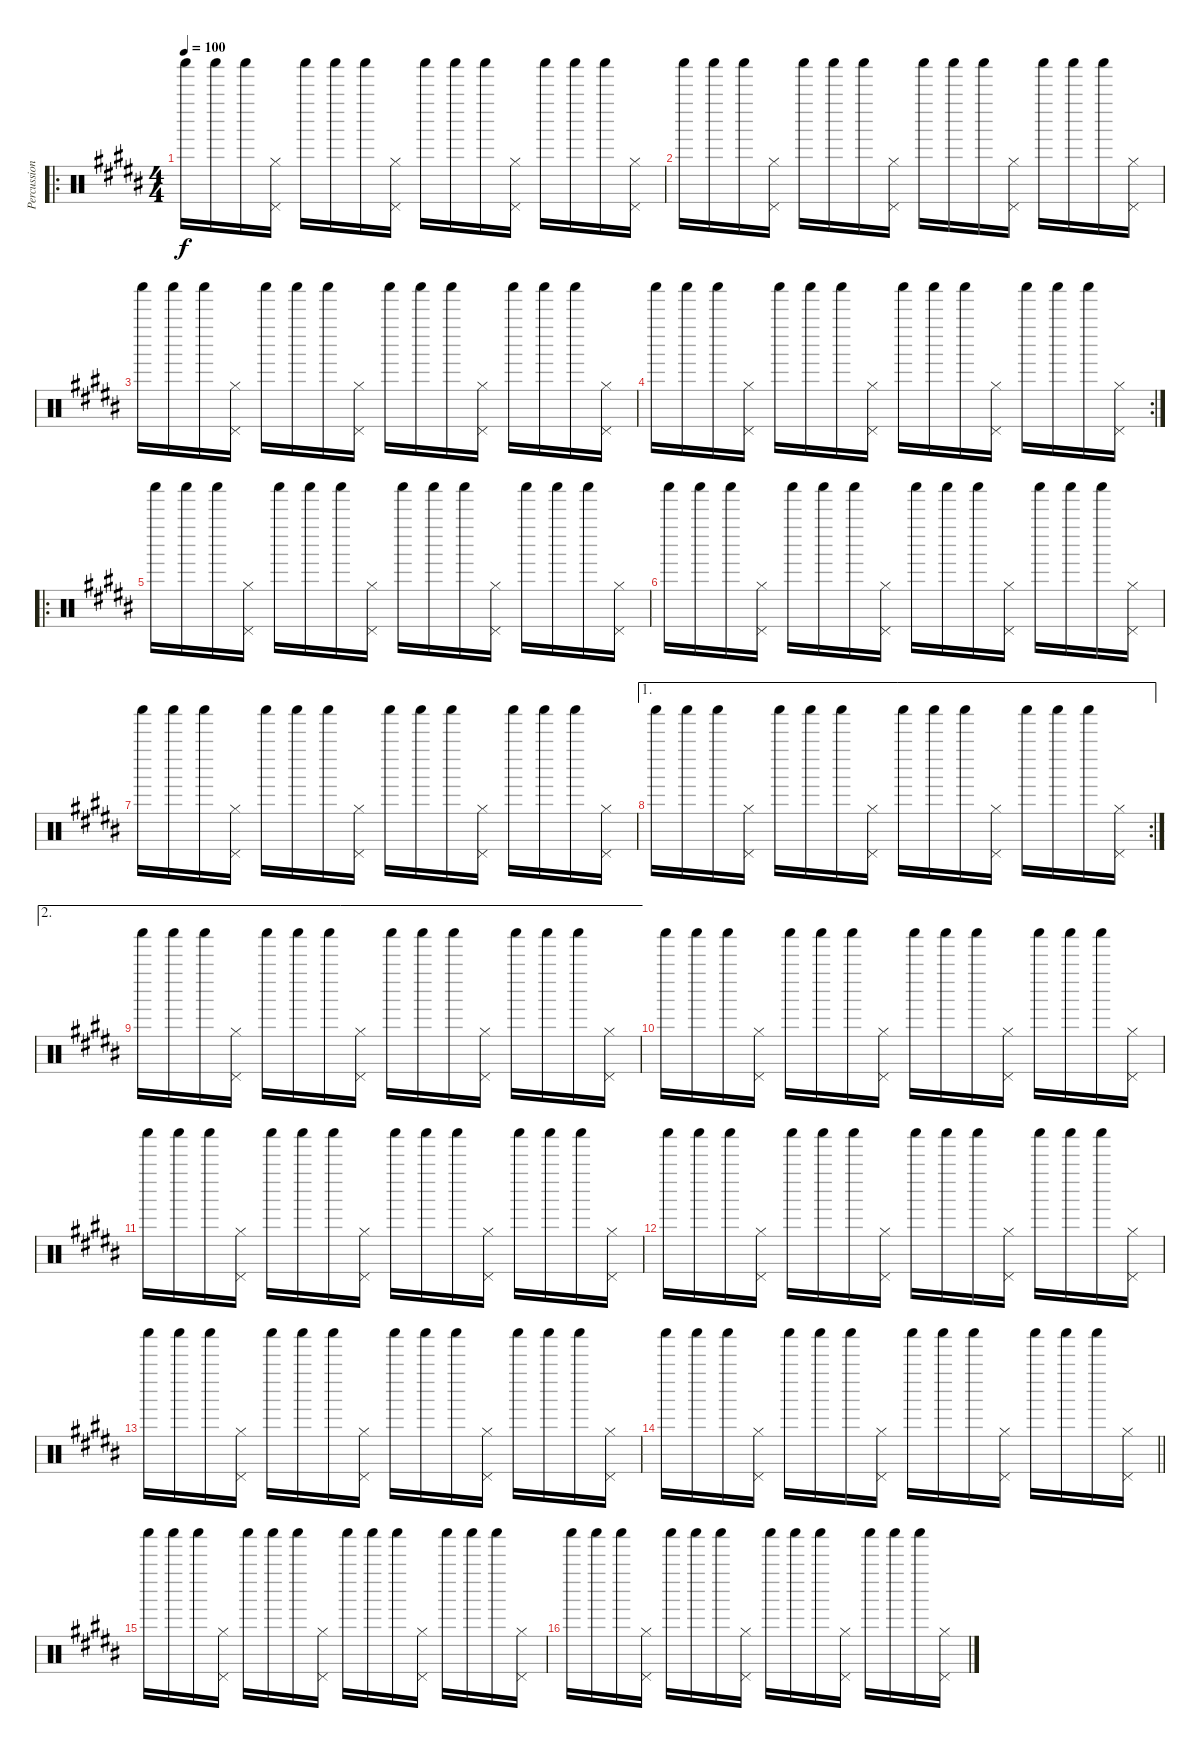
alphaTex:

\track ("Percussions" "Percussion") {instrument percussion}
\staff {score}
\articulation defaults
\ro
\ts (4 4)
\tempo 100
\clef neutral
\ks b "Shaker (hit)".16{dy f} "Shaker (hit)".16 "Shaker (hit)".16
("Hi-Hat (closed)" "Pedal Hi-Hat (hit)").16 "Shaker (hit)".16 "Shaker (hit)".16 "Shaker (hit)".16 ("Hi-Hat (closed)" "Pedal Hi-Hat (hit)").16 "Shaker (hit)".16 "Shaker (hit)".16 "Shaker (hit)".16 ("Hi-Hat (closed)" "Pedal Hi-Hat (hit)").16 "Shaker (hit)".16 "Shaker (hit)".16 "Shaker (hit)".16 ("Hi-Hat (closed)" "Pedal Hi-Hat (hit)").16 |
"Shaker (hit)".16 "Shaker (hit)".16 "Shaker (hit)".16 ("Hi-Hat (closed)" "Pedal Hi-Hat (hit)").16 "Shaker (hit)".16 "Shaker (hit)".16 "Shaker (hit)".16 ("Hi-Hat (closed)" "Pedal Hi-Hat (hit)").16 "Shaker (hit)".16 "Shaker (hit)".16 "Shaker (hit)".16 ("Hi-Hat (closed)" "Pedal Hi-Hat (hit)").16 "Shaker (hit)".16 "Shaker (hit)".16 "Shaker (hit)".16 ("Hi-Hat (closed)" "Pedal Hi-Hat (hit)").16 |
"Shaker (hit)".16 "Shaker (hit)".16 "Shaker (hit)".16 ("Hi-Hat (closed)" "Pedal Hi-Hat (hit)").16 "Shaker (hit)".16 "Shaker (hit)".16 "Shaker (hit)".16 ("Hi-Hat (closed)" "Pedal Hi-Hat (hit)").16 "Shaker (hit)".16 "Shaker (hit)".16 "Shaker (hit)".16 ("Hi-Hat (closed)" "Pedal Hi-Hat (hit)").16 "Shaker (hit)".16 "Shaker (hit)".16 "Shaker (hit)".16 ("Hi-Hat (closed)" "Pedal Hi-Hat (hit)").16 |
\rc 2 "Shaker (hit)".16 "Shaker (hit)".16 "Shaker (hit)".16
("Hi-Hat (closed)" "Pedal Hi-Hat (hit)").16 "Shaker (hit)".16 "Shaker (hit)".16 "Shaker (hit)".16 ("Hi-Hat (closed)" "Pedal Hi-Hat (hit)").16 "Shaker (hit)".16 "Shaker (hit)".16 "Shaker (hit)".16 ("Hi-Hat (closed)" "Pedal Hi-Hat (hit)").16 "Shaker (hit)".16 "Shaker (hit)".16 "Shaker (hit)".16 ("Hi-Hat (closed)" "Pedal Hi-Hat (hit)").16 |
\ro "Shaker (hit)".16 "Shaker (hit)".16 "Shaker (hit)".16
("Hi-Hat (closed)" "Pedal Hi-Hat (hit)").16 "Shaker (hit)".16 "Shaker (hit)".16 "Shaker (hit)".16 ("Hi-Hat (closed)" "Pedal Hi-Hat (hit)").16 "Shaker (hit)".16 "Shaker (hit)".16 "Shaker (hit)".16 ("Hi-Hat (closed)" "Pedal Hi-Hat (hit)").16 "Shaker (hit)".16 "Shaker (hit)".16 "Shaker (hit)".16 ("Hi-Hat (closed)" "Pedal Hi-Hat (hit)").16 |
"Shaker (hit)".16 "Shaker (hit)".16 "Shaker (hit)".16 ("Hi-Hat (closed)" "Pedal Hi-Hat (hit)").16 "Shaker (hit)".16 "Shaker (hit)".16 "Shaker (hit)".16 ("Hi-Hat (closed)" "Pedal Hi-Hat (hit)").16 "Shaker (hit)".16 "Shaker (hit)".16 "Shaker (hit)".16 ("Hi-Hat (closed)" "Pedal Hi-Hat (hit)").16 "Shaker (hit)".16 "Shaker (hit)".16 "Shaker (hit)".16 ("Hi-Hat (closed)" "Pedal Hi-Hat (hit)").16 |
"Shaker (hit)".16 "Shaker (hit)".16 "Shaker (hit)".16 ("Hi-Hat (closed)" "Pedal Hi-Hat (hit)").16 "Shaker (hit)".16 "Shaker (hit)".16 "Shaker (hit)".16 ("Hi-Hat (closed)" "Pedal Hi-Hat (hit)").16 "Shaker (hit)".16 "Shaker (hit)".16 "Shaker (hit)".16 ("Hi-Hat (closed)" "Pedal Hi-Hat (hit)").16 "Shaker (hit)".16 "Shaker (hit)".16 "Shaker (hit)".16 ("Hi-Hat (closed)" "Pedal Hi-Hat (hit)").16 |
\ae 1
\rc 2 "Shaker (hit)".16 "Shaker (hit)".16 "Shaker (hit)".16
("Hi-Hat (closed)" "Pedal Hi-Hat (hit)").16 "Shaker (hit)".16 "Shaker (hit)".16 "Shaker (hit)".16 ("Hi-Hat (closed)" "Pedal Hi-Hat (hit)").16 "Shaker (hit)".16 "Shaker (hit)".16 "Shaker (hit)".16 ("Hi-Hat (closed)" "Pedal Hi-Hat (hit)").16 "Shaker (hit)".16 "Shaker (hit)".16 "Shaker (hit)".16 ("Hi-Hat (closed)" "Pedal Hi-Hat (hit)").16 |
\ae 2 "Shaker (hit)".16 "Shaker (hit)".16 "Shaker (hit)".16
("Hi-Hat (closed)" "Pedal Hi-Hat (hit)").16 "Shaker (hit)".16 "Shaker (hit)".16 "Shaker (hit)".16 ("Hi-Hat (closed)" "Pedal Hi-Hat (hit)").16 "Shaker (hit)".16 "Shaker (hit)".16 "Shaker (hit)".16 ("Hi-Hat (closed)" "Pedal Hi-Hat (hit)").16 "Shaker (hit)".16 "Shaker (hit)".16 "Shaker (hit)".16 ("Hi-Hat (closed)" "Pedal Hi-Hat (hit)").16 |
"Shaker (hit)".16 "Shaker (hit)".16 "Shaker (hit)".16 ("Hi-Hat (closed)" "Pedal Hi-Hat (hit)").16 "Shaker (hit)".16 "Shaker (hit)".16 "Shaker (hit)".16 ("Hi-Hat (closed)" "Pedal Hi-Hat (hit)").16 "Shaker (hit)".16 "Shaker (hit)".16 "Shaker (hit)".16 ("Hi-Hat (closed)" "Pedal Hi-Hat (hit)").16 "Shaker (hit)".16 "Shaker (hit)".16 "Shaker (hit)".16 ("Hi-Hat (closed)" "Pedal Hi-Hat (hit)").16 |
"Shaker (hit)".16 "Shaker (hit)".16 "Shaker (hit)".16 ("Hi-Hat (closed)" "Pedal Hi-Hat (hit)").16 "Shaker (hit)".16 "Shaker (hit)".16 "Shaker (hit)".16 ("Hi-Hat (closed)" "Pedal Hi-Hat (hit)").16 "Shaker (hit)".16 "Shaker (hit)".16 "Shaker (hit)".16 ("Hi-Hat (closed)" "Pedal Hi-Hat (hit)").16 "Shaker (hit)".16 "Shaker (hit)".16 "Shaker (hit)".16 ("Hi-Hat (closed)" "Pedal Hi-Hat (hit)").16 |
"Shaker (hit)".16 "Shaker (hit)".16 "Shaker (hit)".16 ("Hi-Hat (closed)" "Pedal Hi-Hat (hit)").16 "Shaker (hit)".16 "Shaker (hit)".16 "Shaker (hit)".16 ("Hi-Hat (closed)" "Pedal Hi-Hat (hit)").16 "Shaker (hit)".16 "Shaker (hit)".16 "Shaker (hit)".16 ("Hi-Hat (closed)" "Pedal Hi-Hat (hit)").16 "Shaker (hit)".16 "Shaker (hit)".16 "Shaker (hit)".16 ("Hi-Hat (closed)" "Pedal Hi-Hat (hit)").16 |
"Shaker (hit)".16 "Shaker (hit)".16 "Shaker (hit)".16 ("Hi-Hat (closed)" "Pedal Hi-Hat (hit)").16 "Shaker (hit)".16 "Shaker (hit)".16 "Shaker (hit)".16 ("Hi-Hat (closed)" "Pedal Hi-Hat (hit)").16 "Shaker (hit)".16 "Shaker (hit)".16 "Shaker (hit)".16 ("Hi-Hat (closed)" "Pedal Hi-Hat (hit)").16 "Shaker (hit)".16 "Shaker (hit)".16 "Shaker (hit)".16 ("Hi-Hat (closed)" "Pedal Hi-Hat (hit)").16 |
\barLineRight lightlight "Shaker (hit)".16 "Shaker (hit)".16 "Shaker (hit)".16
("Hi-Hat (closed)" "Pedal Hi-Hat (hit)").16 "Shaker (hit)".16 "Shaker (hit)".16 "Shaker (hit)".16 ("Hi-Hat (closed)" "Pedal Hi-Hat (hit)").16 "Shaker (hit)".16 "Shaker (hit)".16 "Shaker (hit)".16 ("Hi-Hat (closed)" "Pedal Hi-Hat (hit)").16 "Shaker (hit)".16 "Shaker (hit)".16 "Shaker (hit)".16 ("Hi-Hat (closed)" "Pedal Hi-Hat (hit)").16 |
"Shaker (hit)".16 "Shaker (hit)".16 "Shaker (hit)".16 ("Hi-Hat (closed)" "Pedal Hi-Hat (hit)").16 "Shaker (hit)".16 "Shaker (hit)".16 "Shaker (hit)".16 ("Hi-Hat (closed)" "Pedal Hi-Hat (hit)").16 "Shaker (hit)".16 "Shaker (hit)".16 "Shaker (hit)".16 ("Hi-Hat (closed)" "Pedal Hi-Hat (hit)").16 "Shaker (hit)".16 "Shaker (hit)".16 "Shaker (hit)".16 ("Hi-Hat (closed)" "Pedal Hi-Hat (hit)").16 |
"Shaker (hit)".16 "Shaker (hit)".16 "Shaker (hit)".16 ("Hi-Hat (closed)" "Pedal Hi-Hat (hit)").16 "Shaker (hit)".16 "Shaker (hit)".16 "Shaker (hit)".16 ("Hi-Hat (closed)" "Pedal Hi-Hat (hit)").16 "Shaker (hit)".16 "Shaker (hit)".16 "Shaker (hit)".16 ("Hi-Hat (closed)" "Pedal Hi-Hat (hit)").16 "Shaker (hit)".16 "Shaker (hit)".16 "Shaker (hit)".16 ("Hi-Hat (closed)" "Pedal Hi-Hat (hit)").16
